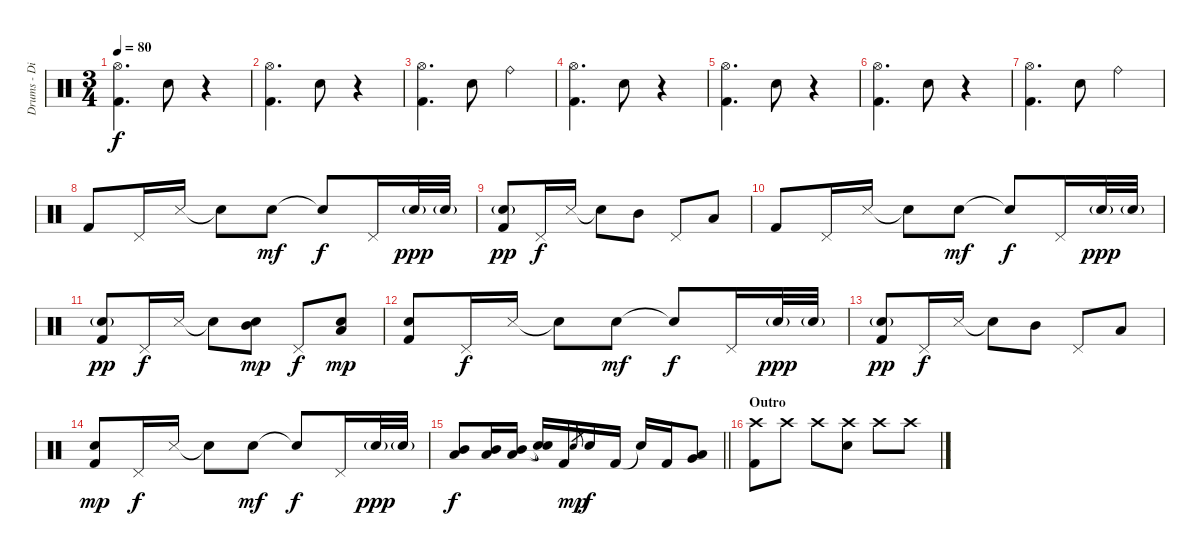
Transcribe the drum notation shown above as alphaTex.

\track ("Drums - Dino Campanella" "Drums - Di") {instrument percussion}
\staff {score}
\articulation defaults
\ts (3 4)
\tempo 80
\clef neutral
\ks c
("Hi-Hat (open)" "Kick (hit) 2").4{d dy f} "Electric Snare (hit)".8 r.4 |
("Hi-Hat (open)" "Kick (hit) 2").4{d} "Electric Snare (hit)".8 r.4 |
("Hi-Hat (open)" "Kick (hit) 2").4{d} "Electric Snare (hit)".8 "Ride (bell)".4 |
("Hi-Hat (open)" "Kick (hit) 2").4{d} "Electric Snare (hit)".8 r.4 |
("Hi-Hat (open)" "Kick (hit) 2").4{d} "Electric Snare (hit)".8 r.4 |
("Hi-Hat (open)" "Kick (hit) 2").4{d} "Electric Snare (hit)".8 r.4 |
("Hi-Hat (open)" "Kick (hit) 2").4{d} "Electric Snare (hit)".8 "Ride (bell)".4 |
"Kick (hit) 2".8 "Pedal Hi-Hat (hit)".16 "Snare (side stick) 3".16 "Snare (hit)"{t}.8 "Electric Snare (hit)".8{dy mf} "Snare (hit)"{t}.8{dy f} "Pedal Hi-Hat (hit)".16 "Electric Snare (hit)"{g}.32{dy ppp} "Electric Snare (hit)"{g}.32 |
("Electric Snare (hit)"{g} "Kick (hit) 2").8{dy pp} "Pedal Hi-Hat (hit)".16{dy f} "Snare (side stick) 3".16 "Snare (hit)"{t}.8 "Mid Tom (hit)".8 "Pedal Hi-Hat (hit)".8 "Low Tom (hit)".8 |
"Kick (hit) 2".8 "Pedal Hi-Hat (hit)".16 "Snare (side stick) 3".16 "Snare (hit)"{t}.8 "Electric Snare (hit)".8{dy mf} "Snare (hit)"{t}.8{dy f} "Pedal Hi-Hat (hit)".16 "Electric Snare (hit)"{g}.32{dy ppp} "Electric Snare (hit)"{g}.32 |
("Electric Snare (hit)"{g} "Kick (hit) 2").8{dy pp} "Pedal Hi-Hat (hit)".16{dy f} "Snare (side stick) 3".16 "Snare (hit)"{t}.8 ("Electric Snare (hit)" "Mid Tom (hit)").8{dy mp} "Pedal Hi-Hat (hit)".8{dy f} ("Electric Snare (hit)" "Low Tom (hit)").8{dy mp} |
("Electric Snare (hit)" "Kick (hit) 2").8 "Pedal Hi-Hat (hit)".16{dy f} "Snare (side stick) 3".16 "Snare (hit)"{t}.8 "Electric Snare (hit)".8{dy mf} "Snare (hit)"{t}.8{dy f} "Pedal Hi-Hat (hit)".16 "Electric Snare (hit)"{g}.32{dy ppp} "Electric Snare (hit)"{g}.32 |
("Electric Snare (hit)"{g} "Kick (hit) 2").8{dy pp volume 4} "Pedal Hi-Hat (hit)".16{dy f} "Snare (side stick) 3".16 "Snare (hit)"{t}.8 "Mid Tom (hit)".8 "Pedal Hi-Hat (hit)".8 "Low Tom (hit)".8 |
("Electric Snare (hit)" "Kick (hit) 2").8{dy mp} "Pedal Hi-Hat (hit)".16{dy f} "Snare (side stick) 3".16 "Snare (hit)"{t}.8 "Electric Snare (hit)".8{dy mf} "Snare (hit)"{t}.8{dy f} "Pedal Hi-Hat (hit)".16 "Electric Snare (hit)"{g}.32{dy ppp} "Electric Snare (hit)"{g}.32 |
\barLineRight lightlight
("Mid Tom (hit)" "Low Tom (hit)").8{dy f volume 16} ("Mid Tom (hit)" "Low Tom (hit)").16 ("Mid Tom (hit)" "Low Tom (hit)").16 ("Snare (hit)"{t} "Snare (hit)"{t}).16 "Kick (hit) 2".16 "Electric Snare (hit)".8{gr dy mp} "Electric Snare (hit)".16{dy f} "Kick (hit) 2".16 "Snare (hit)"{t}.16 "Kick (hit) 2".16 ("Low Tom (hit)" "Very Low Tom (hit)").8 |
\section ("" "Outro")
("Crash high (hit)" "Kick (hit) 2").8 "Crash high (hit)".8 "Crash high (hit)".8 ("Crash high (hit)" "Electric Snare (hit)").8 "Crash high (hit)".8 "Crash high (hit)".8
